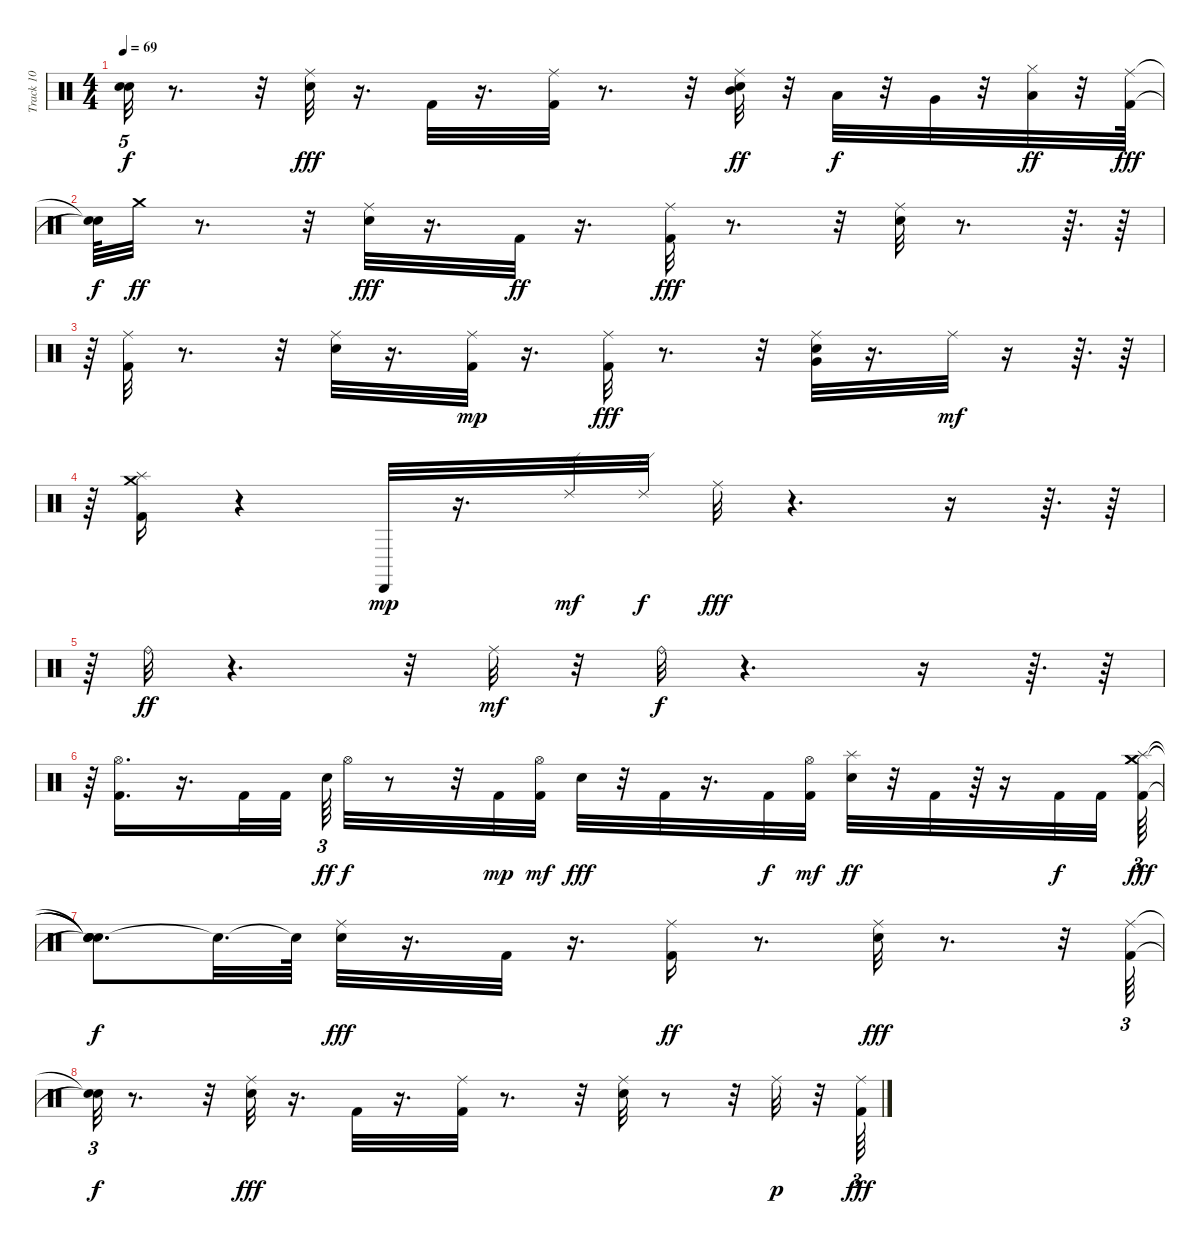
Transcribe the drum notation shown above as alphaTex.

\track ("Track 10" "Track 10") {instrument percussion}
\staff {score}
\articulation defaults
\ts (4 4)
\tempo 69
\clef neutral
\ks c
("Snare (hit)"{t} "Snare (hit)"{t}).32{tu (5 4) dy f} r.8{d} r.32 ("Ride (middle)" "Snare (hit) 2").32{dy fff} r.16{d} "Kick (hit) 2".32 r.16{d} ("Kick (hit) 2" "Ride (middle)").32 r.8{d} r.32 ("Ride (middle)" "Snare (hit) 2" "Mid Tom (hit)").32{dy ff} r.32 "Low Tom (hit)".32{dy f} r.32 "Very Low Tom (hit)".32 r.32 ("Hi-Hat (closed)" "Low Floor Tom (hit)").32{dy ff} r.32 ("Ride (middle)" "Kick (hit) 2").64{dy fff} |
("Snare (hit)"{t} "Snare (hit)"{t}).64{dy f} "Crash medium (hit)".32{dy ff} r.8{d} r.32 ("Ride (middle)" "Snare (hit) 2").32{dy fff} r.16{d} "Kick (hit) 2".32{dy ff} r.16{d} ("Kick (hit) 2" "Ride (middle)").32{dy fff} r.8{d} r.32 ("Ride (middle)" "Snare (hit) 2").32 r.8{d} r.64{d} r.64 |
r.64 ("Kick (hit) 2" "Ride (middle)").32 r.8{d} r.32 ("Ride (middle)" "Snare (hit) 2").32 r.16{d} ("Kick (hit) 2" "Ride (middle)").32{dy mp} r.16{d} ("Kick (hit) 2" "Ride (middle)").32{dy fff} r.8{d} r.32 ("Ride (middle)" "Snare (hit) 2" "Very Low Tom (hit)").32 r.16{d} "Ride (middle)".32{dy mf} r.16 r.64{d} r.64 |
r.64 ("Kick (hit) 2" "Splash (hit)" "Crash medium (hit)").16 r.4 "Cabasa (hit)".32{dy mp} r.16{d} "Ride (edge) 2".32{dy mf} "Ride (edge) 2".32{dy f} "Ride (middle)".32{dy fff} r.4{d} r.16 r.64{d} r.64 |
r.64 "Ride (bell)".32{dy ff} r.4{d} r.32 "Ride (middle)".32{dy mf} r.32 "Ride (bell)".32{dy f} r.4{d} r.16 r.64{d} r.64 |
r.64 ("Kick (hit) 2" "Hi-Hat (open)").16{d} r.16{d} "Kick (hit) 2".32 "Kick (hit) 2".32 "Snare (hit) 2".64{tu (3 2) dy ff} "Hi-Hat (open)".32{dy f} r.8 r.32 "Kick (hit) 2".32{dy mp} ("Kick (hit) 2" "Hi-Hat (open)").32{dy mf} "Snare (hit) 2".32{dy fff} r.32 "Kick (hit) 2".32 r.16{d} "Kick (hit) 2".32{dy f} ("Kick (hit) 2" "Hi-Hat (open)").32{dy mf} ("Snare (hit) 2" "Splash (hit)").32{dy ff} r.32 "Kick (hit) 2".32 r.64 r.16 "Kick (hit) 2".32{dy f} "Kick (hit) 2".32 ("Crash medium (hit)" "Kick (hit) 2" "Splash (hit)" "Crash medium (hit)").64{tu (3 2) dy fff} |
("Snare (hit)"{t} "Snare (hit)"{t} "Snare (hit)"{t} "Snare (hit)"{t}).8{d dy f} "Snare (hit)"{t}.32{d} "Snare (hit)"{t}.64 ("Ride (middle)" "Snare (hit) 2").32{dy fff} r.16{d} "Kick (hit) 2".32 r.16{d} ("Kick (hit) 2" "Ride (middle)").16{dy ff} r.8{d} ("Snare (hit) 2" "Ride (middle)").32{dy fff} r.8{d} r.32 ("Ride (middle)" "Kick (hit) 2").64{tu (3 2)} |
("Snare (hit)"{t} "Snare (hit)"{t}).32{tu (3 2) dy f} r.8{d} r.32 ("Ride (middle)" "Snare (hit) 2").32{dy fff} r.16{d} "Kick (hit) 2".32 r.16{d} ("Ride (middle)" "Kick (hit) 2").32 r.8{d} r.32 ("Ride (middle)" "Snare (hit) 2").32 r.8 r.32 "Ride (middle)".32{dy p} r.32 ("Ride (middle)" "Kick (hit) 2").64{tu (3 2) dy fff}
